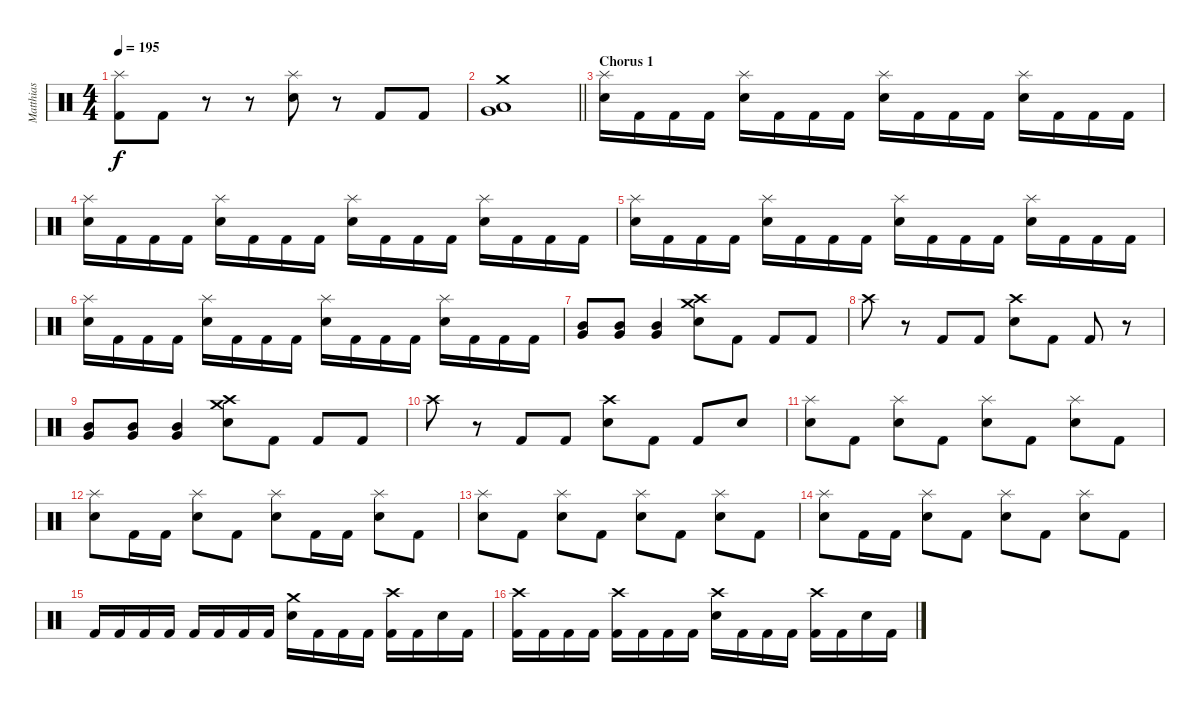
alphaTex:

\track ("Matthias" "Matthias") {instrument percussion}
\staff {score}
\articulation defaults
\ts (4 4)
\tempo 195
\clef neutral
\ks c
("Splash (hit)" "Kick (hit) 2").8{dy f} "Kick (hit) 2".8 r.8 r.8 ("Splash (hit)" "Electric Snare (hit)").8 r.8 "Kick (hit) 2".8 "Kick (hit) 2".8 |
\barLineRight lightlight
("Crash medium (hit)" "Low Tom (hit)" "Very Low Tom (hit)").1 |
\section ("" "Chorus 1")
("Splash (hit)" "Electric Snare (hit)").16 "Kick (hit) 2".16 "Kick (hit) 2".16 "Kick (hit) 2".16 ("Splash (hit)" "Electric Snare (hit)").16 "Kick (hit) 2".16 "Kick (hit) 2".16 "Kick (hit) 2".16 ("Splash (hit)" "Electric Snare (hit)").16 "Kick (hit) 2".16 "Kick (hit) 2".16 "Kick (hit) 2".16 ("Splash (hit)" "Electric Snare (hit)").16 "Kick (hit) 2".16 "Kick (hit) 2".16 "Kick (hit) 2".16 |
("Splash (hit)" "Electric Snare (hit)").16 "Kick (hit) 2".16 "Kick (hit) 2".16 "Kick (hit) 2".16 ("Splash (hit)" "Electric Snare (hit)").16 "Kick (hit) 2".16 "Kick (hit) 2".16 "Kick (hit) 2".16 ("Splash (hit)" "Electric Snare (hit)").16 "Kick (hit) 2".16 "Kick (hit) 2".16 "Kick (hit) 2".16 ("Splash (hit)" "Electric Snare (hit)").16 "Kick (hit) 2".16 "Kick (hit) 2".16 "Kick (hit) 2".16 |
("Splash (hit)" "Electric Snare (hit)").16 "Kick (hit) 2".16 "Kick (hit) 2".16 "Kick (hit) 2".16 ("Splash (hit)" "Electric Snare (hit)").16 "Kick (hit) 2".16 "Kick (hit) 2".16 "Kick (hit) 2".16 ("Splash (hit)" "Electric Snare (hit)").16 "Kick (hit) 2".16 "Kick (hit) 2".16 "Kick (hit) 2".16 ("Splash (hit)" "Electric Snare (hit)").16 "Kick (hit) 2".16 "Kick (hit) 2".16 "Kick (hit) 2".16 |
("Splash (hit)" "Electric Snare (hit)").16 "Kick (hit) 2".16 "Kick (hit) 2".16 "Kick (hit) 2".16 ("Splash (hit)" "Electric Snare (hit)").16 "Kick (hit) 2".16 "Kick (hit) 2".16 "Kick (hit) 2".16 ("Splash (hit)" "Electric Snare (hit)").16 "Kick (hit) 2".16 "Kick (hit) 2".16 "Kick (hit) 2".16 ("Splash (hit)" "Electric Snare (hit)").16 "Kick (hit) 2".16 "Kick (hit) 2".16 "Kick (hit) 2".16 |
("Mid Tom (hit)" "Very Low Tom (hit)").8 ("Mid Tom (hit)" "Very Low Tom (hit)").8 ("Mid Tom (hit)" "Very Low Tom (hit)").4 ("Crash medium (hit)" "Crash high (hit)" "Electric Snare (hit)").8 "Kick (hit) 2".8 "Kick (hit) 2".8 "Kick (hit) 2".8 |
"Crash high (hit)".8 r.8 "Kick (hit) 2".8 "Kick (hit) 2".8 ("Crash high (hit)" "Electric Snare (hit)").8 "Kick (hit) 2".8 "Kick (hit) 2".8 r.8 |
("Mid Tom (hit)" "Very Low Tom (hit)").8 ("Mid Tom (hit)" "Very Low Tom (hit)").8 ("Mid Tom (hit)" "Very Low Tom (hit)").4 ("Crash medium (hit)" "Crash high (hit)" "Electric Snare (hit)").8 "Kick (hit) 2".8 "Kick (hit) 2".8 "Kick (hit) 2".8 |
"Crash high (hit)".8 r.8 "Kick (hit) 2".8 "Kick (hit) 2".8 ("Crash high (hit)" "Electric Snare (hit)").8 "Kick (hit) 2".8 "Kick (hit) 2".8 "Electric Snare (hit)".8 |
("Splash (hit)" "Electric Snare (hit)").8 "Kick (hit) 2".8 ("Splash (hit)" "Electric Snare (hit)").8 "Kick (hit) 2".8 ("Splash (hit)" "Electric Snare (hit)").8 "Kick (hit) 2".8 ("Splash (hit)" "Electric Snare (hit)").8 "Kick (hit) 2".8 |
("Splash (hit)" "Electric Snare (hit)").8 "Kick (hit) 2".16 "Kick (hit) 2".16 ("Splash (hit)" "Electric Snare (hit)").8 "Kick (hit) 2".8 ("Splash (hit)" "Electric Snare (hit)").8 "Kick (hit) 2".16 "Kick (hit) 2".16 ("Splash (hit)" "Electric Snare (hit)").8 "Kick (hit) 2".8 |
("Splash (hit)" "Electric Snare (hit)").8 "Kick (hit) 2".8 ("Splash (hit)" "Electric Snare (hit)").8 "Kick (hit) 2".8 ("Splash (hit)" "Electric Snare (hit)").8 "Kick (hit) 2".8 ("Splash (hit)" "Electric Snare (hit)").8 "Kick (hit) 2".8 |
("Splash (hit)" "Electric Snare (hit)").8 "Kick (hit) 2".16 "Kick (hit) 2".16 ("Splash (hit)" "Electric Snare (hit)").8 "Kick (hit) 2".8 ("Splash (hit)" "Electric Snare (hit)").8 "Kick (hit) 2".8 ("Splash (hit)" "Electric Snare (hit)").8 "Kick (hit) 2".8 |
"Kick (hit) 2".16 "Kick (hit) 2".16 "Kick (hit) 2".16 "Kick (hit) 2".16 "Kick (hit) 2".16 "Kick (hit) 2".16 "Kick (hit) 2".16 "Kick (hit) 2".16 ("Crash medium (hit)" "Electric Snare (hit)").16 "Kick (hit) 2".16 "Kick (hit) 2".16 "Kick (hit) 2".16 ("Crash high (hit)" "Kick (hit) 2").16 "Kick (hit) 2".16 "Electric Snare (hit)".16 "Kick (hit) 2".16 |
("Crash high (hit)" "Kick (hit) 2").16 "Kick (hit) 2".16 "Kick (hit) 2".16 "Kick (hit) 2".16 ("Crash high (hit)" "Kick (hit) 2").16 "Kick (hit) 2".16 "Kick (hit) 2".16 "Kick (hit) 2".16 ("Crash high (hit)" "Electric Snare (hit)").16 "Kick (hit) 2".16 "Kick (hit) 2".16 "Kick (hit) 2".16 ("Crash high (hit)" "Kick (hit) 2").16 "Kick (hit) 2".16 "Electric Snare (hit)".16 "Kick (hit) 2".16
